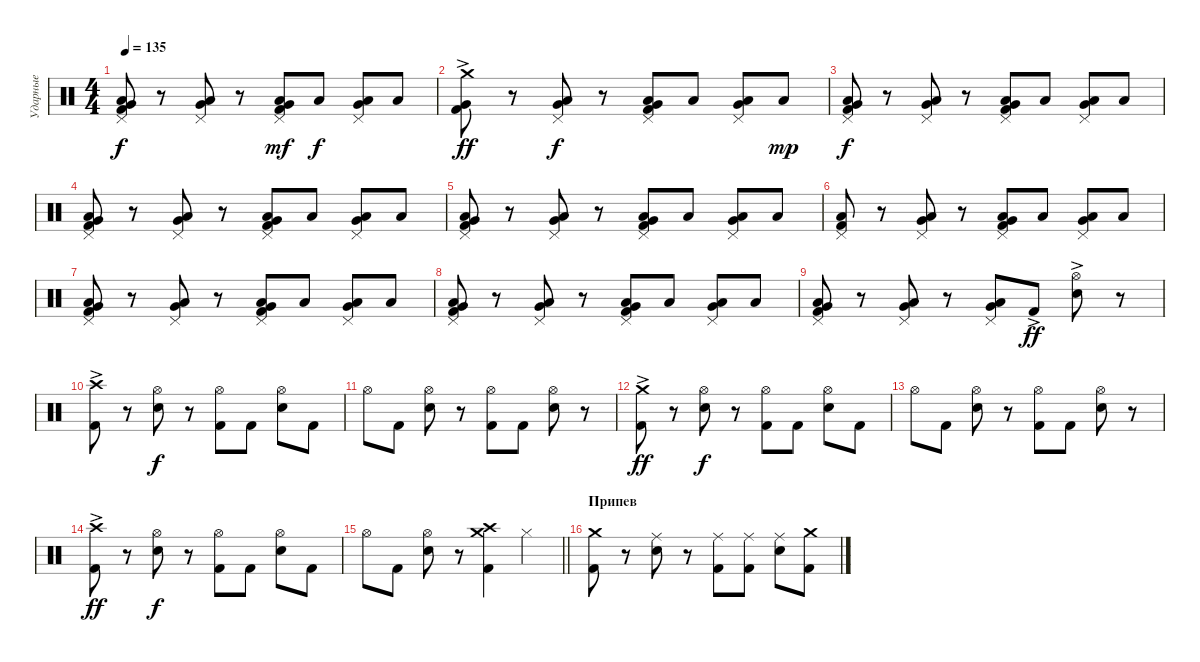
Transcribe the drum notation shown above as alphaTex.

\track ("Ударные" "Ударные") {instrument percussion}
\staff
\articulation defaults
\ts (4 4)
\tempo 135
\clef neutral
\ks c
("Pedal Hi-Hat (hit)" "Very Low Tom (hit)" "Low Floor Tom (hit)" "Kick (hit) 2").8{dy f} r.8 ("Pedal Hi-Hat (hit)" "Very Low Tom (hit)" "Low Floor Tom (hit)").8 r.8 ("Pedal Hi-Hat (hit)" "Very Low Tom (hit)" "Low Floor Tom (hit)" "Kick (hit) 2").8{dy mf} "Low Floor Tom (hit)".8{dy f} ("Pedal Hi-Hat (hit)" "Very Low Tom (hit)" "Low Floor Tom (hit)").8 "Low Floor Tom (hit)".8 |
("Crash medium (hit)"{ac} "Very Low Tom (hit)" "Kick (hit) 2").8{dy ff} r.8 ("Pedal Hi-Hat (hit)" "Very Low Tom (hit)" "Low Floor Tom (hit)").8{dy f} r.8 ("Pedal Hi-Hat (hit)" "Very Low Tom (hit)" "Low Floor Tom (hit)" "Kick (hit) 2").8 "Low Floor Tom (hit)".8 ("Pedal Hi-Hat (hit)" "Very Low Tom (hit)" "Low Floor Tom (hit)").8 "Low Floor Tom (hit)".8{dy mp} |
("Pedal Hi-Hat (hit)" "Very Low Tom (hit)" "Low Floor Tom (hit)" "Kick (hit) 2").8{dy f} r.8 ("Pedal Hi-Hat (hit)" "Very Low Tom (hit)" "Low Floor Tom (hit)").8 r.8 ("Pedal Hi-Hat (hit)" "Very Low Tom (hit)" "Low Floor Tom (hit)" "Kick (hit) 2").8 "Low Floor Tom (hit)".8 ("Pedal Hi-Hat (hit)" "Very Low Tom (hit)" "Low Floor Tom (hit)").8 "Low Floor Tom (hit)".8 |
("Pedal Hi-Hat (hit)" "Very Low Tom (hit)" "Low Floor Tom (hit)" "Kick (hit) 2").8 r.8 ("Pedal Hi-Hat (hit)" "Very Low Tom (hit)" "Low Floor Tom (hit)").8 r.8 ("Pedal Hi-Hat (hit)" "Very Low Tom (hit)" "Low Floor Tom (hit)" "Kick (hit) 2").8 "Low Floor Tom (hit)".8 ("Pedal Hi-Hat (hit)" "Very Low Tom (hit)" "Low Floor Tom (hit)").8 "Low Floor Tom (hit)".8 |
("Pedal Hi-Hat (hit)" "Very Low Tom (hit)" "Low Floor Tom (hit)" "Kick (hit) 2").8 r.8 ("Pedal Hi-Hat (hit)" "Very Low Tom (hit)" "Low Floor Tom (hit)").8 r.8 ("Pedal Hi-Hat (hit)" "Very Low Tom (hit)" "Low Floor Tom (hit)" "Kick (hit) 2").8 "Low Floor Tom (hit)".8 ("Pedal Hi-Hat (hit)" "Very Low Tom (hit)" "Low Floor Tom (hit)").8 "Low Floor Tom (hit)".8 |
("Pedal Hi-Hat (hit)" "Low Floor Tom (hit)" "Kick (hit) 2").8 r.8 ("Pedal Hi-Hat (hit)" "Very Low Tom (hit)" "Low Floor Tom (hit)").8 r.8 ("Pedal Hi-Hat (hit)" "Very Low Tom (hit)" "Low Floor Tom (hit)" "Kick (hit) 2").8 "Low Floor Tom (hit)".8 ("Pedal Hi-Hat (hit)" "Very Low Tom (hit)" "Low Floor Tom (hit)").8 "Low Floor Tom (hit)".8 |
("Pedal Hi-Hat (hit)" "Very Low Tom (hit)" "Low Floor Tom (hit)" "Kick (hit) 2").8 r.8 ("Pedal Hi-Hat (hit)" "Very Low Tom (hit)" "Low Floor Tom (hit)").8 r.8 ("Pedal Hi-Hat (hit)" "Very Low Tom (hit)" "Low Floor Tom (hit)" "Kick (hit) 2").8 "Low Floor Tom (hit)".8 ("Pedal Hi-Hat (hit)" "Very Low Tom (hit)" "Low Floor Tom (hit)").8 "Low Floor Tom (hit)".8 |
("Pedal Hi-Hat (hit)" "Very Low Tom (hit)" "Low Floor Tom (hit)" "Kick (hit) 2").8 r.8 ("Pedal Hi-Hat (hit)" "Very Low Tom (hit)" "Low Floor Tom (hit)").8 r.8 ("Pedal Hi-Hat (hit)" "Very Low Tom (hit)" "Low Floor Tom (hit)" "Kick (hit) 2").8 "Low Floor Tom (hit)".8 ("Pedal Hi-Hat (hit)" "Very Low Tom (hit)" "Low Floor Tom (hit)").8 "Low Floor Tom (hit)".8 |
("Pedal Hi-Hat (hit)" "Very Low Tom (hit)" "Low Floor Tom (hit)" "Kick (hit) 2").8 r.8 ("Pedal Hi-Hat (hit)" "Very Low Tom (hit)" "Low Floor Tom (hit)").8 r.8 ("Pedal Hi-Hat (hit)" "Very Low Tom (hit)" "Low Floor Tom (hit)").8 "Kick (hit) 2"{ac}.8{dy ff} ("Hi-Hat (open)" "Electric Snare (hit)"{ac}).8 r.8 |
("Crash high (hit)"{ac} "Kick (hit) 2").8 r.8 ("Hi-Hat (open)" "Electric Snare (hit)").8{dy f} r.8 ("Hi-Hat (open)" "Kick (hit) 2").8 "Kick (hit) 2".8 ("Hi-Hat (open)" "Electric Snare (hit)").8 "Kick (hit) 2".8 |
"Hi-Hat (open)".8 "Kick (hit) 2".8 ("Hi-Hat (open)" "Electric Snare (hit)").8 r.8 ("Hi-Hat (open)" "Kick (hit) 2").8 "Kick (hit) 2".8 ("Hi-Hat (open)" "Electric Snare (hit)").8 r.8 |
("Crash medium (hit)"{ac} "Kick (hit) 2").8{dy ff} r.8 ("Hi-Hat (open)" "Electric Snare (hit)").8{dy f} r.8 ("Hi-Hat (open)" "Kick (hit) 2").8 "Kick (hit) 2".8 ("Hi-Hat (open)" "Electric Snare (hit)").8 "Kick (hit) 2".8 |
"Hi-Hat (open)".8 "Kick (hit) 2".8 ("Hi-Hat (open)" "Electric Snare (hit)").8 r.8 ("Hi-Hat (open)" "Kick (hit) 2").8 "Kick (hit) 2".8 ("Hi-Hat (open)" "Electric Snare (hit)").8 r.8 |
("Crash high (hit)"{ac} "Kick (hit) 2").8{dy ff} r.8 ("Hi-Hat (open)" "Electric Snare (hit)").8{dy f} r.8 ("Hi-Hat (open)" "Kick (hit) 2").8 "Kick (hit) 2".8 ("Hi-Hat (open)" "Electric Snare (hit)").8 "Kick (hit) 2".8 |
\barLineRight lightlight "Hi-Hat (open)".8 "Kick (hit) 2".8
("Hi-Hat (open)" "Electric Snare (hit)").8 r.8 ("Crash high (hit)" "Crash medium (hit)" "Kick (hit) 2").4 "Hi-Hat (closed)".4 |
\section ("" "Припев")
("Crash medium (hit)" "Kick (hit) 2").8 r.8 ("Ride (middle)" "Electric Snare (hit)").8 r.8 ("Ride (middle)" "Kick (hit) 2").8 ("Ride (middle)" "Kick (hit) 2").8 ("Ride (middle)" "Electric Snare (hit)").8 ("Crash medium (hit)" "Kick (hit) 2").8
